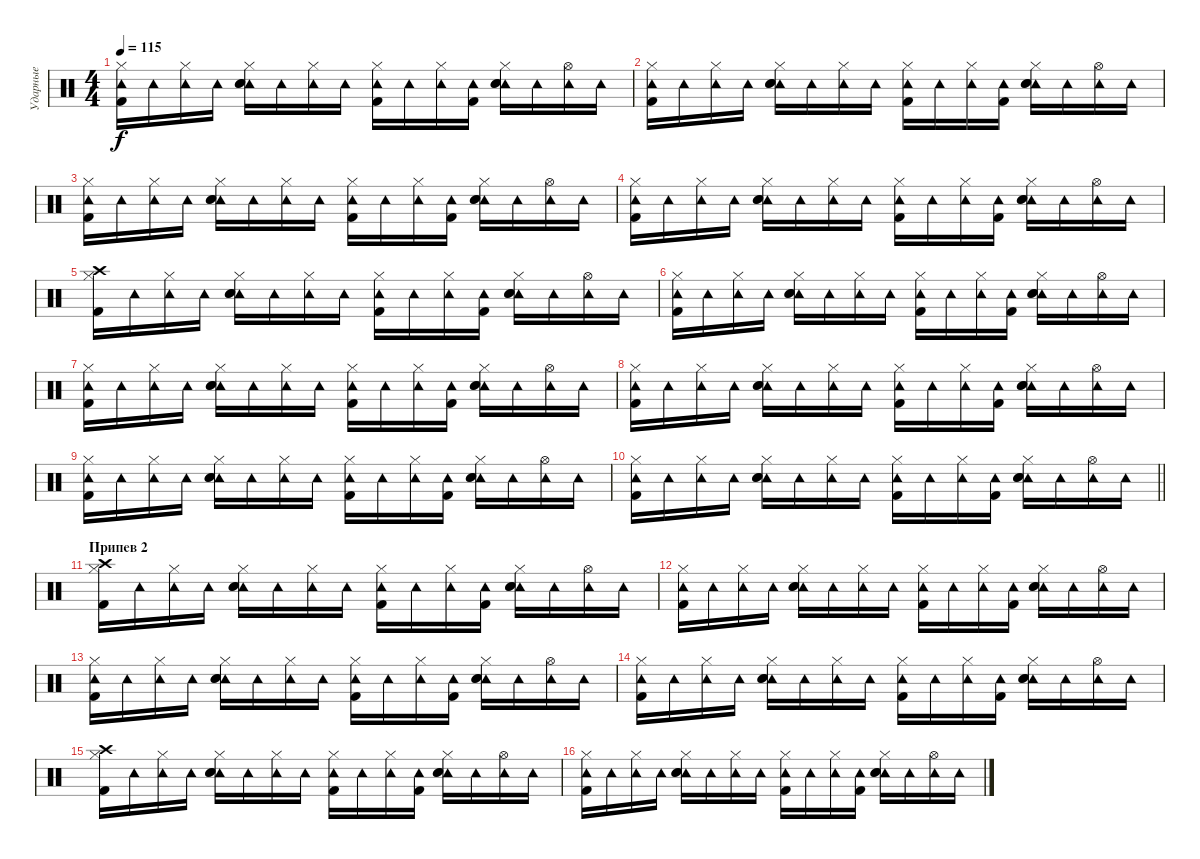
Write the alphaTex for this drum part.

\track ("Ударные" "Ударные") {instrument percussion}
\staff {score}
\articulation defaults
\ts (4 4)
\tempo 115
\clef neutral
\ks c
("Tambourine (hit)" "Hi-Hat (closed)" "Kick (hit) 2").16{dy f} "Tambourine (hit)".16 ("Tambourine (hit)" "Hi-Hat (closed)").16 "Tambourine (hit)".16 ("Tambourine (hit)" "Hi-Hat (closed)" "Electric Snare (hit)" "Snare (hit) 2").16 "Tambourine (hit)".16 ("Tambourine (hit)" "Hi-Hat (closed)").16 "Tambourine (hit)".16 ("Tambourine (hit)" "Hi-Hat (closed)" "Kick (hit) 2").16 "Tambourine (hit)".16 ("Tambourine (hit)" "Hi-Hat (closed)").16 ("Tambourine (hit)" "Kick (hit) 2").16 ("Tambourine (hit)" "Hi-Hat (closed)" "Electric Snare (hit)" "Snare (hit) 2").16 "Tambourine (hit)".16 ("Tambourine (hit)" "Hi-Hat (open)").16 "Tambourine (hit)".16 |
("Tambourine (hit)" "Hi-Hat (closed)" "Kick (hit) 2").16 "Tambourine (hit)".16 ("Tambourine (hit)" "Hi-Hat (closed)").16 "Tambourine (hit)".16 ("Tambourine (hit)" "Hi-Hat (closed)" "Electric Snare (hit)" "Snare (hit) 2").16 "Tambourine (hit)".16 ("Tambourine (hit)" "Hi-Hat (closed)").16 "Tambourine (hit)".16 ("Tambourine (hit)" "Hi-Hat (closed)" "Kick (hit) 2").16 "Tambourine (hit)".16 ("Tambourine (hit)" "Hi-Hat (closed)").16 ("Tambourine (hit)" "Kick (hit) 2").16 ("Tambourine (hit)" "Hi-Hat (closed)" "Electric Snare (hit)" "Snare (hit) 2").16 "Tambourine (hit)".16 ("Tambourine (hit)" "Hi-Hat (open)").16 "Tambourine (hit)".16 |
("Tambourine (hit)" "Hi-Hat (closed)" "Kick (hit) 2").16 "Tambourine (hit)".16 ("Tambourine (hit)" "Hi-Hat (closed)").16 "Tambourine (hit)".16 ("Tambourine (hit)" "Hi-Hat (closed)" "Electric Snare (hit)" "Snare (hit) 2").16 "Tambourine (hit)".16 ("Tambourine (hit)" "Hi-Hat (closed)").16 "Tambourine (hit)".16 ("Tambourine (hit)" "Hi-Hat (closed)" "Kick (hit) 2").16 "Tambourine (hit)".16 ("Tambourine (hit)" "Hi-Hat (closed)").16 ("Tambourine (hit)" "Kick (hit) 2").16 ("Tambourine (hit)" "Hi-Hat (closed)" "Electric Snare (hit)" "Snare (hit) 2").16 "Tambourine (hit)".16 ("Tambourine (hit)" "Hi-Hat (open)").16 "Tambourine (hit)".16 |
("Tambourine (hit)" "Hi-Hat (closed)" "Kick (hit) 2").16 "Tambourine (hit)".16 ("Tambourine (hit)" "Hi-Hat (closed)").16 "Tambourine (hit)".16 ("Tambourine (hit)" "Hi-Hat (closed)" "Electric Snare (hit)" "Snare (hit) 2").16 "Tambourine (hit)".16 ("Tambourine (hit)" "Hi-Hat (closed)").16 "Tambourine (hit)".16 ("Tambourine (hit)" "Hi-Hat (closed)" "Kick (hit) 2").16 "Tambourine (hit)".16 ("Tambourine (hit)" "Hi-Hat (closed)").16 ("Tambourine (hit)" "Kick (hit) 2").16 ("Tambourine (hit)" "Hi-Hat (closed)" "Electric Snare (hit)" "Snare (hit) 2").16 "Tambourine (hit)".16 ("Tambourine (hit)" "Hi-Hat (open)").16 "Tambourine (hit)".16 |
("Crash high (hit)" "Hi-Hat (closed)" "Kick (hit) 2").16 "Tambourine (hit)".16 ("Tambourine (hit)" "Hi-Hat (closed)").16 "Tambourine (hit)".16 ("Tambourine (hit)" "Hi-Hat (closed)" "Electric Snare (hit)" "Snare (hit) 2").16 "Tambourine (hit)".16 ("Tambourine (hit)" "Hi-Hat (closed)").16 "Tambourine (hit)".16 ("Tambourine (hit)" "Hi-Hat (closed)" "Kick (hit) 2").16 "Tambourine (hit)".16 ("Tambourine (hit)" "Hi-Hat (closed)").16 ("Tambourine (hit)" "Kick (hit) 2").16 ("Tambourine (hit)" "Hi-Hat (closed)" "Electric Snare (hit)" "Snare (hit) 2").16 "Tambourine (hit)".16 ("Tambourine (hit)" "Hi-Hat (open)").16 "Tambourine (hit)".16 |
("Tambourine (hit)" "Hi-Hat (closed)" "Kick (hit) 2").16 "Tambourine (hit)".16 ("Tambourine (hit)" "Hi-Hat (closed)").16 "Tambourine (hit)".16 ("Tambourine (hit)" "Hi-Hat (closed)" "Electric Snare (hit)" "Snare (hit) 2").16 "Tambourine (hit)".16 ("Tambourine (hit)" "Hi-Hat (closed)").16 "Tambourine (hit)".16 ("Tambourine (hit)" "Hi-Hat (closed)" "Kick (hit) 2").16 "Tambourine (hit)".16 ("Tambourine (hit)" "Hi-Hat (closed)").16 ("Tambourine (hit)" "Kick (hit) 2").16 ("Tambourine (hit)" "Hi-Hat (closed)" "Electric Snare (hit)" "Snare (hit) 2").16 "Tambourine (hit)".16 ("Tambourine (hit)" "Hi-Hat (open)").16 "Tambourine (hit)".16 |
("Tambourine (hit)" "Hi-Hat (closed)" "Kick (hit) 2").16 "Tambourine (hit)".16 ("Tambourine (hit)" "Hi-Hat (closed)").16 "Tambourine (hit)".16 ("Tambourine (hit)" "Hi-Hat (closed)" "Electric Snare (hit)" "Snare (hit) 2").16 "Tambourine (hit)".16 ("Tambourine (hit)" "Hi-Hat (closed)").16 "Tambourine (hit)".16 ("Tambourine (hit)" "Hi-Hat (closed)" "Kick (hit) 2").16 "Tambourine (hit)".16 ("Tambourine (hit)" "Hi-Hat (closed)").16 ("Tambourine (hit)" "Kick (hit) 2").16 ("Tambourine (hit)" "Hi-Hat (closed)" "Electric Snare (hit)" "Snare (hit) 2").16 "Tambourine (hit)".16 ("Tambourine (hit)" "Hi-Hat (open)").16 "Tambourine (hit)".16 |
("Tambourine (hit)" "Hi-Hat (closed)" "Kick (hit) 2").16 "Tambourine (hit)".16 ("Tambourine (hit)" "Hi-Hat (closed)").16 "Tambourine (hit)".16 ("Tambourine (hit)" "Hi-Hat (closed)" "Electric Snare (hit)" "Snare (hit) 2").16 "Tambourine (hit)".16 ("Tambourine (hit)" "Hi-Hat (closed)").16 "Tambourine (hit)".16 ("Tambourine (hit)" "Hi-Hat (closed)" "Kick (hit) 2").16 "Tambourine (hit)".16 ("Tambourine (hit)" "Hi-Hat (closed)").16 ("Tambourine (hit)" "Kick (hit) 2").16 ("Tambourine (hit)" "Hi-Hat (closed)" "Electric Snare (hit)" "Snare (hit) 2").16 "Tambourine (hit)".16 ("Tambourine (hit)" "Hi-Hat (open)").16 "Tambourine (hit)".16 |
("Tambourine (hit)" "Hi-Hat (closed)" "Kick (hit) 2").16 "Tambourine (hit)".16 ("Tambourine (hit)" "Hi-Hat (closed)").16 "Tambourine (hit)".16 ("Tambourine (hit)" "Hi-Hat (closed)" "Electric Snare (hit)" "Snare (hit) 2").16 "Tambourine (hit)".16 ("Tambourine (hit)" "Hi-Hat (closed)").16 "Tambourine (hit)".16 ("Tambourine (hit)" "Hi-Hat (closed)" "Kick (hit) 2").16 "Tambourine (hit)".16 ("Tambourine (hit)" "Hi-Hat (closed)").16 ("Tambourine (hit)" "Kick (hit) 2").16 ("Tambourine (hit)" "Hi-Hat (closed)" "Electric Snare (hit)" "Snare (hit) 2").16 "Tambourine (hit)".16 ("Tambourine (hit)" "Hi-Hat (open)").16 "Tambourine (hit)".16 |
\barLineRight lightlight
("Tambourine (hit)" "Hi-Hat (closed)" "Kick (hit) 2").16 "Tambourine (hit)".16 ("Tambourine (hit)" "Hi-Hat (closed)").16 "Tambourine (hit)".16 ("Tambourine (hit)" "Hi-Hat (closed)" "Electric Snare (hit)" "Snare (hit) 2").16 "Tambourine (hit)".16 ("Tambourine (hit)" "Hi-Hat (closed)").16 "Tambourine (hit)".16 ("Tambourine (hit)" "Hi-Hat (closed)" "Kick (hit) 2").16 "Tambourine (hit)".16 ("Tambourine (hit)" "Hi-Hat (closed)").16 ("Tambourine (hit)" "Kick (hit) 2").16 ("Tambourine (hit)" "Hi-Hat (closed)" "Electric Snare (hit)" "Snare (hit) 2").16 "Tambourine (hit)".16 ("Tambourine (hit)" "Hi-Hat (open)").16 "Tambourine (hit)".16 |
\section ("" "Припев 2")
("Crash high (hit)" "Hi-Hat (closed)" "Kick (hit) 2").16 "Tambourine (hit)".16 ("Tambourine (hit)" "Hi-Hat (closed)").16 "Tambourine (hit)".16 ("Tambourine (hit)" "Hi-Hat (closed)" "Electric Snare (hit)" "Snare (hit) 2").16 "Tambourine (hit)".16 ("Tambourine (hit)" "Hi-Hat (closed)").16 "Tambourine (hit)".16 ("Tambourine (hit)" "Hi-Hat (closed)" "Kick (hit) 2").16 "Tambourine (hit)".16 ("Tambourine (hit)" "Hi-Hat (closed)").16 ("Tambourine (hit)" "Kick (hit) 2").16 ("Tambourine (hit)" "Hi-Hat (closed)" "Electric Snare (hit)" "Snare (hit) 2").16 "Tambourine (hit)".16 ("Tambourine (hit)" "Hi-Hat (open)").16 "Tambourine (hit)".16 |
("Tambourine (hit)" "Hi-Hat (closed)" "Kick (hit) 2").16 "Tambourine (hit)".16 ("Tambourine (hit)" "Hi-Hat (closed)").16 "Tambourine (hit)".16 ("Tambourine (hit)" "Hi-Hat (closed)" "Electric Snare (hit)" "Snare (hit) 2").16 "Tambourine (hit)".16 ("Tambourine (hit)" "Hi-Hat (closed)").16 "Tambourine (hit)".16 ("Tambourine (hit)" "Hi-Hat (closed)" "Kick (hit) 2").16 "Tambourine (hit)".16 ("Tambourine (hit)" "Hi-Hat (closed)").16 ("Tambourine (hit)" "Kick (hit) 2").16 ("Tambourine (hit)" "Hi-Hat (closed)" "Electric Snare (hit)" "Snare (hit) 2").16 "Tambourine (hit)".16 ("Tambourine (hit)" "Hi-Hat (open)").16 "Tambourine (hit)".16 |
("Tambourine (hit)" "Hi-Hat (closed)" "Kick (hit) 2").16 "Tambourine (hit)".16 ("Tambourine (hit)" "Hi-Hat (closed)").16 "Tambourine (hit)".16 ("Tambourine (hit)" "Hi-Hat (closed)" "Electric Snare (hit)" "Snare (hit) 2").16 "Tambourine (hit)".16 ("Tambourine (hit)" "Hi-Hat (closed)").16 "Tambourine (hit)".16 ("Tambourine (hit)" "Hi-Hat (closed)" "Kick (hit) 2").16 "Tambourine (hit)".16 ("Tambourine (hit)" "Hi-Hat (closed)").16 ("Tambourine (hit)" "Kick (hit) 2").16 ("Tambourine (hit)" "Hi-Hat (closed)" "Electric Snare (hit)" "Snare (hit) 2").16 "Tambourine (hit)".16 ("Tambourine (hit)" "Hi-Hat (open)").16 "Tambourine (hit)".16 |
("Tambourine (hit)" "Hi-Hat (closed)" "Kick (hit) 2").16 "Tambourine (hit)".16 ("Tambourine (hit)" "Hi-Hat (closed)").16 "Tambourine (hit)".16 ("Tambourine (hit)" "Hi-Hat (closed)" "Electric Snare (hit)" "Snare (hit) 2").16 "Tambourine (hit)".16 ("Tambourine (hit)" "Hi-Hat (closed)").16 "Tambourine (hit)".16 ("Tambourine (hit)" "Hi-Hat (closed)" "Kick (hit) 2").16 "Tambourine (hit)".16 ("Tambourine (hit)" "Hi-Hat (closed)").16 ("Tambourine (hit)" "Kick (hit) 2").16 ("Tambourine (hit)" "Hi-Hat (closed)" "Electric Snare (hit)" "Snare (hit) 2").16 "Tambourine (hit)".16 ("Tambourine (hit)" "Hi-Hat (open)").16 "Tambourine (hit)".16 |
("Crash high (hit)" "Hi-Hat (closed)" "Kick (hit) 2").16 "Tambourine (hit)".16 ("Tambourine (hit)" "Hi-Hat (closed)").16 "Tambourine (hit)".16 ("Tambourine (hit)" "Hi-Hat (closed)" "Electric Snare (hit)" "Snare (hit) 2").16 "Tambourine (hit)".16 ("Tambourine (hit)" "Hi-Hat (closed)").16 "Tambourine (hit)".16 ("Tambourine (hit)" "Hi-Hat (closed)" "Kick (hit) 2").16 "Tambourine (hit)".16 ("Tambourine (hit)" "Hi-Hat (closed)").16 ("Tambourine (hit)" "Kick (hit) 2").16 ("Tambourine (hit)" "Hi-Hat (closed)" "Electric Snare (hit)" "Snare (hit) 2").16 "Tambourine (hit)".16 ("Tambourine (hit)" "Hi-Hat (open)").16 "Tambourine (hit)".16 |
("Tambourine (hit)" "Hi-Hat (closed)" "Kick (hit) 2").16 "Tambourine (hit)".16 ("Tambourine (hit)" "Hi-Hat (closed)").16 "Tambourine (hit)".16 ("Tambourine (hit)" "Hi-Hat (closed)" "Electric Snare (hit)" "Snare (hit) 2").16 "Tambourine (hit)".16 ("Tambourine (hit)" "Hi-Hat (closed)").16 "Tambourine (hit)".16 ("Tambourine (hit)" "Hi-Hat (closed)" "Kick (hit) 2").16 "Tambourine (hit)".16 ("Tambourine (hit)" "Hi-Hat (closed)").16 ("Tambourine (hit)" "Kick (hit) 2").16 ("Tambourine (hit)" "Hi-Hat (closed)" "Electric Snare (hit)" "Snare (hit) 2").16 "Tambourine (hit)".16 ("Tambourine (hit)" "Hi-Hat (open)").16 "Tambourine (hit)".16
